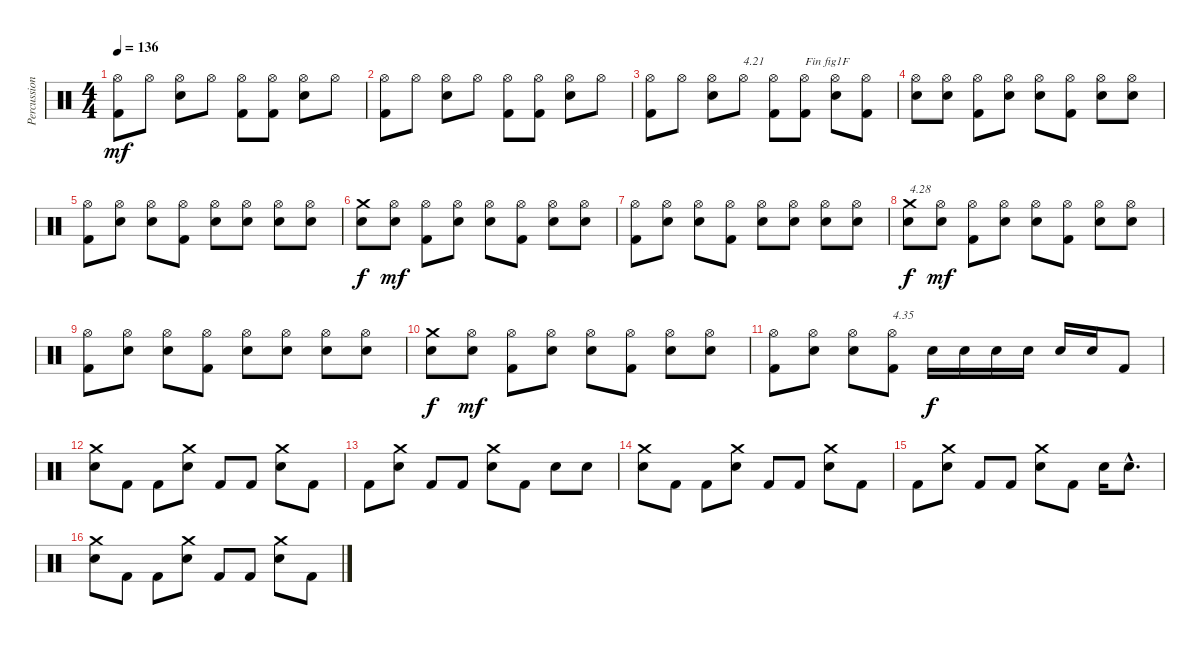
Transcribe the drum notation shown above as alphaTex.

\track ("Percussions" "Percussion") {instrument percussion}
\staff {score}
\articulation defaults
\ts (4 4)
\tempo 136
\clef neutral
\ks c
("Kick (hit) 2" "Hi-Hat (open)").8{dy mf} "Hi-Hat (open)".8 ("Electric Snare (hit)" "Hi-Hat (open)").8 "Hi-Hat (open)".8 ("Kick (hit) 2" "Hi-Hat (open)").8 ("Kick (hit) 2" "Hi-Hat (open)").8 ("Electric Snare (hit)" "Hi-Hat (open)").8 "Hi-Hat (open)".8 |
("Kick (hit) 2" "Hi-Hat (open)").8 "Hi-Hat (open)".8 ("Electric Snare (hit)" "Hi-Hat (open)").8 "Hi-Hat (open)".8 ("Kick (hit) 2" "Hi-Hat (open)").8 ("Kick (hit) 2" "Hi-Hat (open)").8 ("Electric Snare (hit)" "Hi-Hat (open)").8 "Hi-Hat (open)".8 |
("Kick (hit) 2" "Hi-Hat (open)").8 "Hi-Hat (open)".8 ("Electric Snare (hit)" "Hi-Hat (open)").8 "Hi-Hat (open)".8{txt "4.21"} ("Kick (hit) 2" "Hi-Hat (open)").8 ("Kick (hit) 2" "Hi-Hat (open)").8{txt "Fin fig1F"} ("Electric Snare (hit)" "Hi-Hat (open)").8 ("Kick (hit) 2" "Hi-Hat (open)").8 |
("Electric Snare (hit)" "Hi-Hat (open)").8 ("Electric Snare (hit)" "Hi-Hat (open)").8 ("Kick (hit) 2" "Hi-Hat (open)").8 ("Electric Snare (hit)" "Hi-Hat (open)").8 ("Electric Snare (hit)" "Hi-Hat (open)").8 ("Kick (hit) 2" "Hi-Hat (open)").8 ("Electric Snare (hit)" "Hi-Hat (open)").8 ("Electric Snare (hit)" "Hi-Hat (open)").8 |
("Kick (hit) 2" "Hi-Hat (open)").8 ("Electric Snare (hit)" "Hi-Hat (open)").8 ("Electric Snare (hit)" "Hi-Hat (open)").8 ("Kick (hit) 2" "Hi-Hat (open)").8 ("Electric Snare (hit)" "Hi-Hat (open)").8 ("Electric Snare (hit)" "Hi-Hat (open)").8 ("Snare (hit) 2" "Hi-Hat (open)").8 ("Snare (hit) 2" "Hi-Hat (open)").8 |
("Electric Snare (hit)" "Crash medium (hit)").8{dy f} ("Electric Snare (hit)" "Hi-Hat (open)").8{dy mf} ("Kick (hit) 2" "Hi-Hat (open)").8 ("Electric Snare (hit)" "Hi-Hat (open)").8 ("Electric Snare (hit)" "Hi-Hat (open)").8 ("Kick (hit) 2" "Hi-Hat (open)").8 ("Electric Snare (hit)" "Hi-Hat (open)").8 ("Electric Snare (hit)" "Hi-Hat (open)").8 |
("Kick (hit) 2" "Hi-Hat (open)").8 ("Electric Snare (hit)" "Hi-Hat (open)").8 ("Electric Snare (hit)" "Hi-Hat (open)").8 ("Kick (hit) 2" "Hi-Hat (open)").8 ("Electric Snare (hit)" "Hi-Hat (open)").8 ("Electric Snare (hit)" "Hi-Hat (open)").8 ("Snare (hit) 2" "Hi-Hat (open)").8 ("Snare (hit) 2" "Hi-Hat (open)").8 |
("Electric Snare (hit)" "Crash medium (hit)").8{txt "4.28" dy f} ("Electric Snare (hit)" "Hi-Hat (open)").8{dy mf} ("Kick (hit) 2" "Hi-Hat (open)").8 ("Electric Snare (hit)" "Hi-Hat (open)").8 ("Electric Snare (hit)" "Hi-Hat (open)").8 ("Kick (hit) 2" "Hi-Hat (open)").8 ("Electric Snare (hit)" "Hi-Hat (open)").8 ("Electric Snare (hit)" "Hi-Hat (open)").8 |
("Kick (hit) 2" "Hi-Hat (open)").8 ("Electric Snare (hit)" "Hi-Hat (open)").8 ("Electric Snare (hit)" "Hi-Hat (open)").8 ("Kick (hit) 2" "Hi-Hat (open)").8 ("Electric Snare (hit)" "Hi-Hat (open)").8 ("Electric Snare (hit)" "Hi-Hat (open)").8 ("Snare (hit) 2" "Hi-Hat (open)").8 ("Snare (hit) 2" "Hi-Hat (open)").8 |
("Electric Snare (hit)" "Crash medium (hit)").8{dy f} ("Electric Snare (hit)" "Hi-Hat (open)").8{dy mf} ("Kick (hit) 2" "Hi-Hat (open)").8 ("Electric Snare (hit)" "Hi-Hat (open)").8 ("Electric Snare (hit)" "Hi-Hat (open)").8 ("Kick (hit) 2" "Hi-Hat (open)").8 ("Electric Snare (hit)" "Hi-Hat (open)").8 ("Electric Snare (hit)" "Hi-Hat (open)").8 |
("Kick (hit) 2" "Hi-Hat (open)").8 ("Electric Snare (hit)" "Hi-Hat (open)").8 ("Electric Snare (hit)" "Hi-Hat (open)").8 ("Kick (hit) 2" "Hi-Hat (open)").8{txt "4.35"} "Electric Snare (hit)".16{dy f} "Electric Snare (hit)".16 "Electric Snare (hit)".16 "Electric Snare (hit)".16 "Electric Snare (hit)".16 "Electric Snare (hit)".16 "Kick (hit) 2".8 |
("Electric Snare (hit)" "Crash medium (hit)").8 "Kick (hit) 2".8 "Kick (hit) 2".8 ("Electric Snare (hit)" "Crash medium (hit)").8 "Kick (hit) 2".8 "Kick (hit) 2".8 ("Electric Snare (hit)" "Crash medium (hit)").8 "Kick (hit) 2".8 |
"Kick (hit) 2".8 ("Electric Snare (hit)" "Crash medium (hit)").8 "Kick (hit) 2".8 "Kick (hit) 2".8 ("Electric Snare (hit)" "Crash medium (hit)").8 "Kick (hit) 2".8 "Electric Snare (hit)".8 "Electric Snare (hit)".8 |
("Electric Snare (hit)" "Crash medium (hit)").8 "Kick (hit) 2".8 "Kick (hit) 2".8 ("Electric Snare (hit)" "Crash medium (hit)").8 "Kick (hit) 2".8 "Kick (hit) 2".8 ("Electric Snare (hit)" "Crash medium (hit)").8 "Kick (hit) 2".8 |
"Kick (hit) 2".8 ("Electric Snare (hit)" "Crash medium (hit)").8 "Kick (hit) 2".8 "Kick (hit) 2".8 ("Electric Snare (hit)" "Crash medium (hit)").8 "Kick (hit) 2".8 "Electric Snare (hit)".16 "Electric Snare (hit)"{hac}.8{d} |
("Electric Snare (hit)" "Crash medium (hit)").8 "Kick (hit) 2".8 "Kick (hit) 2".8 ("Electric Snare (hit)" "Crash medium (hit)").8 "Kick (hit) 2".8 "Kick (hit) 2".8 ("Electric Snare (hit)" "Crash medium (hit)").8 "Kick (hit) 2".8
